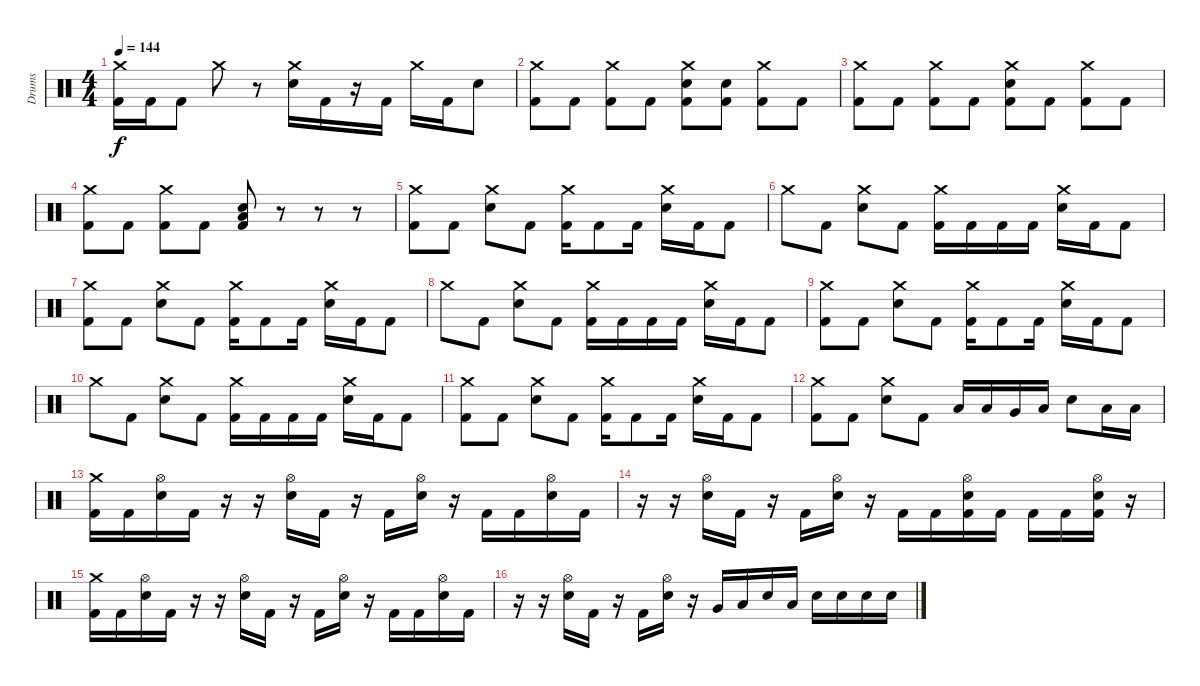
\track ("Drums" "Drums") {instrument percussion}
\staff {score}
\articulation defaults
\ts (4 4)
\tempo 144
\clef neutral
\ks c
("Crash medium (hit)" "Kick (hit) 2").16{dy f} "Kick (hit) 2".16 "Kick (hit) 2".8 "Crash medium (hit)".8 r.8 ("Crash medium (hit)" "Electric Snare (hit)").16 "Kick (hit) 2".16 r.16 "Kick (hit) 2".16 "Crash medium (hit)".16 "Kick (hit) 2".16 "Electric Snare (hit)".8 |
("Crash medium (hit)" "Kick (hit) 2").8 "Kick (hit) 2".8 ("Crash medium (hit)" "Kick (hit) 2").8 "Kick (hit) 2".8 ("Crash medium (hit)" "Electric Snare (hit)" "Kick (hit) 2").8 ("Electric Snare (hit)" "Kick (hit) 2").8 ("Crash medium (hit)" "Kick (hit) 2").8 "Kick (hit) 2".8 |
("Crash medium (hit)" "Kick (hit) 2").8 "Kick (hit) 2".8 ("Crash medium (hit)" "Kick (hit) 2").8 "Kick (hit) 2".8 ("Crash medium (hit)" "Electric Snare (hit)" "Kick (hit) 2").8 "Kick (hit) 2".8 ("Crash medium (hit)" "Kick (hit) 2").8 "Kick (hit) 2".8 |
("Crash medium (hit)" "Kick (hit) 2").8 "Kick (hit) 2".8 ("Crash medium (hit)" "Kick (hit) 2").8 "Kick (hit) 2".8 ("Low Floor Tom (hit)" "Electric Snare (hit)" "Kick (hit) 2").8 r.8 r.8 r.8 |
("Crash medium (hit)" "Kick (hit) 2").8 "Kick (hit) 2".8 ("Crash medium (hit)" "Electric Snare (hit)").8 "Kick (hit) 2".8 ("Crash medium (hit)" "Kick (hit) 2").16 "Kick (hit) 2".8 "Kick (hit) 2".16 ("Crash medium (hit)" "Electric Snare (hit)").16 "Kick (hit) 2".16 "Kick (hit) 2".8 |
"Crash medium (hit)".8 "Kick (hit) 2".8 ("Crash medium (hit)" "Electric Snare (hit)").8 "Kick (hit) 2".8 ("Crash medium (hit)" "Kick (hit) 2").16 "Kick (hit) 2".16 "Kick (hit) 2".16 "Kick (hit) 2".16 ("Crash medium (hit)" "Electric Snare (hit)").16 "Kick (hit) 2".16 "Kick (hit) 2".8 |
("Crash medium (hit)" "Kick (hit) 2").8 "Kick (hit) 2".8 ("Crash medium (hit)" "Electric Snare (hit)").8 "Kick (hit) 2".8 ("Crash medium (hit)" "Kick (hit) 2").16 "Kick (hit) 2".8 "Kick (hit) 2".16 ("Crash medium (hit)" "Electric Snare (hit)").16 "Kick (hit) 2".16 "Kick (hit) 2".8 |
"Crash medium (hit)".8 "Kick (hit) 2".8 ("Crash medium (hit)" "Electric Snare (hit)").8 "Kick (hit) 2".8 ("Crash medium (hit)" "Kick (hit) 2").16 "Kick (hit) 2".16 "Kick (hit) 2".16 "Kick (hit) 2".16 ("Crash medium (hit)" "Electric Snare (hit)").16 "Kick (hit) 2".16 "Kick (hit) 2".8 |
("Crash medium (hit)" "Kick (hit) 2").8 "Kick (hit) 2".8 ("Crash medium (hit)" "Electric Snare (hit)").8 "Kick (hit) 2".8 ("Crash medium (hit)" "Kick (hit) 2").16 "Kick (hit) 2".8 "Kick (hit) 2".16 ("Crash medium (hit)" "Electric Snare (hit)").16 "Kick (hit) 2".16 "Kick (hit) 2".8 |
"Crash medium (hit)".8 "Kick (hit) 2".8 ("Crash medium (hit)" "Electric Snare (hit)").8 "Kick (hit) 2".8 ("Crash medium (hit)" "Kick (hit) 2").16 "Kick (hit) 2".16 "Kick (hit) 2".16 "Kick (hit) 2".16 ("Crash medium (hit)" "Electric Snare (hit)").16 "Kick (hit) 2".16 "Kick (hit) 2".8 |
("Crash medium (hit)" "Kick (hit) 2").8 "Kick (hit) 2".8 ("Crash medium (hit)" "Electric Snare (hit)").8 "Kick (hit) 2".8 ("Crash medium (hit)" "Kick (hit) 2").16 "Kick (hit) 2".8 "Kick (hit) 2".16 ("Crash medium (hit)" "Electric Snare (hit)").16 "Kick (hit) 2".16 "Kick (hit) 2".8 |
("Crash medium (hit)" "Kick (hit) 2").8 "Kick (hit) 2".8 ("Crash medium (hit)" "Electric Snare (hit)").8 "Kick (hit) 2".8 "Low Tom (hit)".16 "Low Tom (hit)".16 "Very Low Tom (hit)".16 "Low Floor Tom (hit)".16 "Electric Snare (hit)".8 "Low Floor Tom (hit)".16 "Low Floor Tom (hit)".16 |
("Crash medium (hit)" "Kick (hit) 2").16 "Kick (hit) 2".16 ("Hi-Hat (open)" "Electric Snare (hit)").16 "Kick (hit) 2".16 r.16 r.16 ("Hi-Hat (open)" "Electric Snare (hit)").16 "Kick (hit) 2".16 r.16 "Kick (hit) 2".16 ("Hi-Hat (open)" "Electric Snare (hit)").16 r.16 "Kick (hit) 2".16 "Kick (hit) 2".16 ("Hi-Hat (open)" "Electric Snare (hit)").16 "Kick (hit) 2".16 |
r.16 r.16 ("Hi-Hat (open)" "Electric Snare (hit)").16 "Kick (hit) 2".16 r.16 "Kick (hit) 2".16 ("Hi-Hat (open)" "Electric Snare (hit)").16 r.16 "Kick (hit) 2".16 "Kick (hit) 2".16 ("Hi-Hat (open)" "Electric Snare (hit)" "Kick (hit) 2").16 "Kick (hit) 2".16 "Kick (hit) 2".16 "Kick (hit) 2".16 ("Hi-Hat (open)" "Electric Snare (hit)" "Kick (hit) 2").16 r.16 |
("Crash medium (hit)" "Kick (hit) 2").16 "Kick (hit) 2".16 ("Hi-Hat (open)" "Electric Snare (hit)").16 "Kick (hit) 2".16 r.16 r.16 ("Hi-Hat (open)" "Electric Snare (hit)").16 "Kick (hit) 2".16 r.16 "Kick (hit) 2".16 ("Hi-Hat (open)" "Electric Snare (hit)").16 r.16 "Kick (hit) 2".16 "Kick (hit) 2".16 ("Hi-Hat (open)" "Electric Snare (hit)").16 "Kick (hit) 2".16 |
r.16 r.16 ("Hi-Hat (open)" "Electric Snare (hit)").16 "Kick (hit) 2".16 r.16 "Kick (hit) 2".16 ("Hi-Hat (open)" "Electric Snare (hit)").16 r.16 "Very Low Tom (hit)".16 "Low Floor Tom (hit)".16 "Electric Snare (hit)".16 "Low Floor Tom (hit)".16 "Electric Snare (hit)".16 "Electric Snare (hit)".16 "Electric Snare (hit)".16 "Electric Snare (hit)".16
